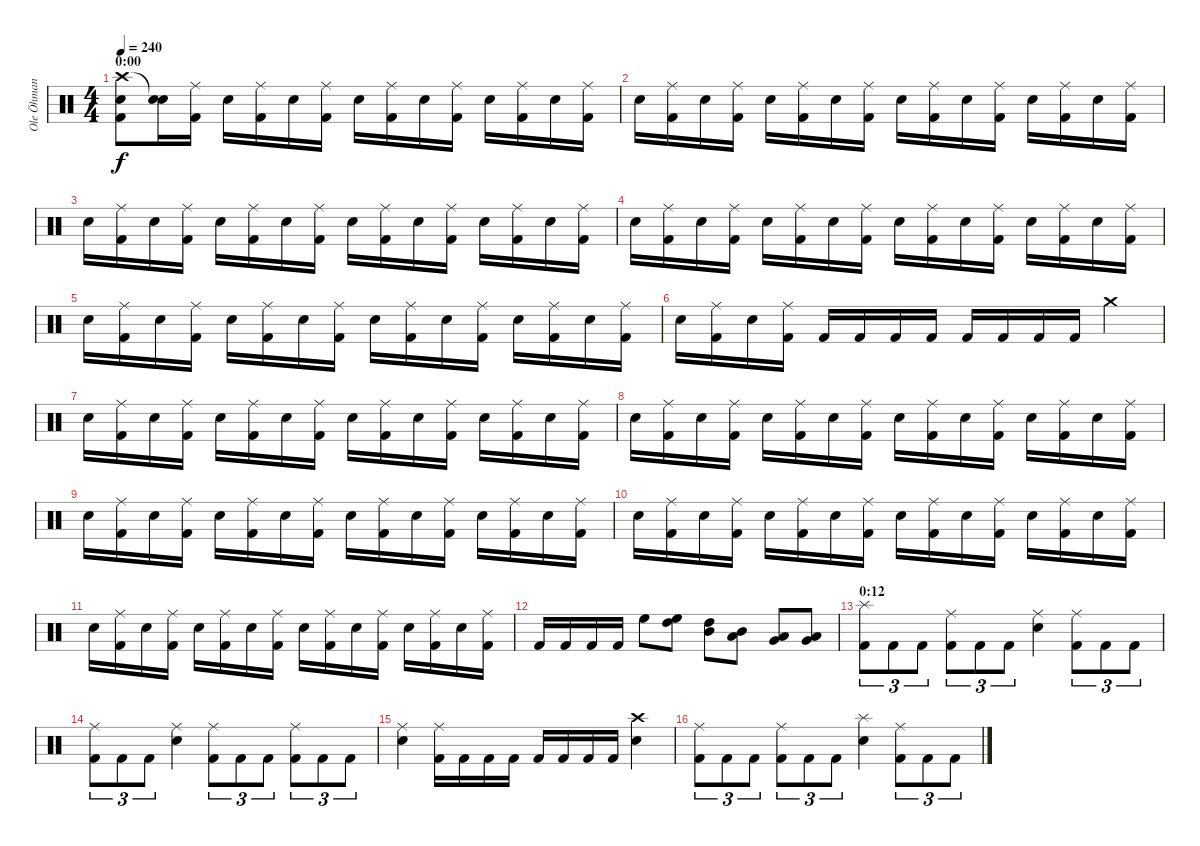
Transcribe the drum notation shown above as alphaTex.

\track ("Ole Öhman" "Ole Öhman") {instrument percussion}
\staff {score}
\articulation defaults
\ts (4 4)
\section ("" "0:00")
\tempo 240
\clef neutral
\ks c
("Crash high (hit)" "Electric Snare (hit)" "Kick (hit) 2").8{dy f} ("Snare (hit)"{t} "Electric Snare (hit)").16 ("Ride (middle)" "Kick (hit) 2").16 "Electric Snare (hit)".16 ("Ride (middle)" "Kick (hit) 2").16 "Electric Snare (hit)".16 ("Ride (middle)" "Kick (hit) 2").16 "Electric Snare (hit)".16 ("Ride (middle)" "Kick (hit) 2").16 "Electric Snare (hit)".16 ("Ride (middle)" "Kick (hit) 2").16 "Electric Snare (hit)".16 ("Ride (middle)" "Kick (hit) 2").16 "Electric Snare (hit)".16 ("Ride (middle)" "Kick (hit) 2").16 |
"Electric Snare (hit)".16 ("Ride (middle)" "Kick (hit) 2").16 "Electric Snare (hit)".16 ("Ride (middle)" "Kick (hit) 2").16 "Electric Snare (hit)".16 ("Ride (middle)" "Kick (hit) 2").16 "Electric Snare (hit)".16 ("Ride (middle)" "Kick (hit) 2").16 "Electric Snare (hit)".16 ("Ride (middle)" "Kick (hit) 2").16 "Electric Snare (hit)".16 ("Ride (middle)" "Kick (hit) 2").16 "Electric Snare (hit)".16 ("Ride (middle)" "Kick (hit) 2").16 "Electric Snare (hit)".16 ("Ride (middle)" "Kick (hit) 2").16 |
"Electric Snare (hit)".16 ("Ride (middle)" "Kick (hit) 2").16 "Electric Snare (hit)".16 ("Ride (middle)" "Kick (hit) 2").16 "Electric Snare (hit)".16 ("Ride (middle)" "Kick (hit) 2").16 "Electric Snare (hit)".16 ("Ride (middle)" "Kick (hit) 2").16 "Electric Snare (hit)".16 ("Ride (middle)" "Kick (hit) 2").16 "Electric Snare (hit)".16 ("Ride (middle)" "Kick (hit) 2").16 "Electric Snare (hit)".16 ("Ride (middle)" "Kick (hit) 2").16 "Electric Snare (hit)".16 ("Ride (middle)" "Kick (hit) 2").16 |
"Electric Snare (hit)".16 ("Ride (middle)" "Kick (hit) 2").16 "Electric Snare (hit)".16 ("Ride (middle)" "Kick (hit) 2").16 "Electric Snare (hit)".16 ("Ride (middle)" "Kick (hit) 2").16 "Electric Snare (hit)".16 ("Ride (middle)" "Kick (hit) 2").16 "Electric Snare (hit)".16 ("Ride (middle)" "Kick (hit) 2").16 "Electric Snare (hit)".16 ("Ride (middle)" "Kick (hit) 2").16 "Electric Snare (hit)".16 ("Ride (middle)" "Kick (hit) 2").16 "Electric Snare (hit)".16 ("Ride (middle)" "Kick (hit) 2").16 |
"Electric Snare (hit)".16 ("Ride (middle)" "Kick (hit) 2").16 "Electric Snare (hit)".16 ("Ride (middle)" "Kick (hit) 2").16 "Electric Snare (hit)".16 ("Ride (middle)" "Kick (hit) 2").16 "Electric Snare (hit)".16 ("Ride (middle)" "Kick (hit) 2").16 "Electric Snare (hit)".16 ("Ride (middle)" "Kick (hit) 2").16 "Electric Snare (hit)".16 ("Ride (middle)" "Kick (hit) 2").16 "Electric Snare (hit)".16 ("Ride (middle)" "Kick (hit) 2").16 "Electric Snare (hit)".16 ("Ride (middle)" "Kick (hit) 2").16 |
"Electric Snare (hit)".16 ("Ride (middle)" "Kick (hit) 2").16 "Electric Snare (hit)".16 ("Ride (middle)" "Kick (hit) 2").16 "Kick (hit) 2".16 "Kick (hit) 2".16 "Kick (hit) 2".16 "Kick (hit) 2".16 "Kick (hit) 2".16 "Kick (hit) 2".16 "Kick (hit) 2".16 "Kick (hit) 2".16 "Crash medium (hit)".4 |
"Electric Snare (hit)".16 ("Ride (middle)" "Kick (hit) 2").16 "Electric Snare (hit)".16 ("Ride (middle)" "Kick (hit) 2").16 "Electric Snare (hit)".16 ("Ride (middle)" "Kick (hit) 2").16 "Electric Snare (hit)".16 ("Ride (middle)" "Kick (hit) 2").16 "Electric Snare (hit)".16 ("Ride (middle)" "Kick (hit) 2").16 "Electric Snare (hit)".16 ("Ride (middle)" "Kick (hit) 2").16 "Electric Snare (hit)".16 ("Ride (middle)" "Kick (hit) 2").16 "Electric Snare (hit)".16 ("Ride (middle)" "Kick (hit) 2").16 |
"Electric Snare (hit)".16 ("Ride (middle)" "Kick (hit) 2").16 "Electric Snare (hit)".16 ("Ride (middle)" "Kick (hit) 2").16 "Electric Snare (hit)".16 ("Ride (middle)" "Kick (hit) 2").16 "Electric Snare (hit)".16 ("Ride (middle)" "Kick (hit) 2").16 "Electric Snare (hit)".16 ("Ride (middle)" "Kick (hit) 2").16 "Electric Snare (hit)".16 ("Ride (middle)" "Kick (hit) 2").16 "Electric Snare (hit)".16 ("Ride (middle)" "Kick (hit) 2").16 "Electric Snare (hit)".16 ("Ride (middle)" "Kick (hit) 2").16 |
"Electric Snare (hit)".16 ("Ride (middle)" "Kick (hit) 2").16 "Electric Snare (hit)".16 ("Ride (middle)" "Kick (hit) 2").16 "Electric Snare (hit)".16 ("Ride (middle)" "Kick (hit) 2").16 "Electric Snare (hit)".16 ("Ride (middle)" "Kick (hit) 2").16 "Electric Snare (hit)".16 ("Ride (middle)" "Kick (hit) 2").16 "Electric Snare (hit)".16 ("Ride (middle)" "Kick (hit) 2").16 "Electric Snare (hit)".16 ("Ride (middle)" "Kick (hit) 2").16 "Electric Snare (hit)".16 ("Ride (middle)" "Kick (hit) 2").16 |
"Electric Snare (hit)".16 ("Ride (middle)" "Kick (hit) 2").16 "Electric Snare (hit)".16 ("Ride (middle)" "Kick (hit) 2").16 "Electric Snare (hit)".16 ("Ride (middle)" "Kick (hit) 2").16 "Electric Snare (hit)".16 ("Ride (middle)" "Kick (hit) 2").16 "Electric Snare (hit)".16 ("Ride (middle)" "Kick (hit) 2").16 "Electric Snare (hit)".16 ("Ride (middle)" "Kick (hit) 2").16 "Electric Snare (hit)".16 ("Ride (middle)" "Kick (hit) 2").16 "Electric Snare (hit)".16 ("Ride (middle)" "Kick (hit) 2").16 |
"Electric Snare (hit)".16 ("Ride (middle)" "Kick (hit) 2").16 "Electric Snare (hit)".16 ("Ride (middle)" "Kick (hit) 2").16 "Electric Snare (hit)".16 ("Ride (middle)" "Kick (hit) 2").16 "Electric Snare (hit)".16 ("Ride (middle)" "Kick (hit) 2").16 "Electric Snare (hit)".16 ("Ride (middle)" "Kick (hit) 2").16 "Electric Snare (hit)".16 ("Ride (middle)" "Kick (hit) 2").16 "Electric Snare (hit)".16 ("Ride (middle)" "Kick (hit) 2").16 "Electric Snare (hit)".16 ("Ride (middle)" "Kick (hit) 2").16 |
"Kick (hit) 2".16 "Kick (hit) 2".16 "Kick (hit) 2".16 "Kick (hit) 2".16 "High Floor Tom (hit)".8 ("High Floor Tom (hit)" "High Tom (hit)").8 ("High Tom (hit)" "Mid Tom (hit)").8 ("Mid Tom (hit)" "Low Tom (hit)").8 ("Low Tom (hit)" "Very Low Tom (hit)").8 ("Very Low Tom (hit)" "Low Floor Tom (hit)").8 |
\section ("" "0:12")
("Splash (hit)" "Kick (hit) 2").8{tu (3 2)} "Kick (hit) 2".8{tu (3 2)} "Kick (hit) 2".8{tu (3 2)} ("Ride (middle)" "Kick (hit) 2").8{tu (3 2)} "Kick (hit) 2".8{tu (3 2)} "Kick (hit) 2".8{tu (3 2)} ("Ride (middle)" "Electric Snare (hit)").4 ("Ride (middle)" "Kick (hit) 2").8{tu (3 2)} "Kick (hit) 2".8{tu (3 2)} "Kick (hit) 2".8{tu (3 2)} |
("Ride (middle)" "Kick (hit) 2").8{tu (3 2)} "Kick (hit) 2".8{tu (3 2)} "Kick (hit) 2".8{tu (3 2)} ("Ride (middle)" "Electric Snare (hit)").4 ("Ride (middle)" "Kick (hit) 2").8{tu (3 2)} "Kick (hit) 2".8{tu (3 2)} "Kick (hit) 2".8{tu (3 2)} ("Ride (middle)" "Kick (hit) 2").8{tu (3 2)} "Kick (hit) 2".8{tu (3 2)} "Kick (hit) 2".8{tu (3 2)} |
("Ride (middle)" "Electric Snare (hit)").4 ("Ride (middle)" "Kick (hit) 2").16 "Kick (hit) 2".16 "Kick (hit) 2".16 "Kick (hit) 2".16 "Kick (hit) 2".16 "Kick (hit) 2".16 "Kick (hit) 2".16 "Kick (hit) 2".16 ("Crash high (hit)" "Electric Snare (hit)").4 |
("Ride (middle)" "Kick (hit) 2").8{tu (3 2)} "Kick (hit) 2".8{tu (3 2)} "Kick (hit) 2".8{tu (3 2)} ("Ride (middle)" "Kick (hit) 2").8{tu (3 2)} "Kick (hit) 2".8{tu (3 2)} "Kick (hit) 2".8{tu (3 2)} ("Splash (hit)" "Electric Snare (hit)").4 ("Ride (middle)" "Kick (hit) 2").8{tu (3 2)} "Kick (hit) 2".8{tu (3 2)} "Kick (hit) 2".8{tu (3 2)}
